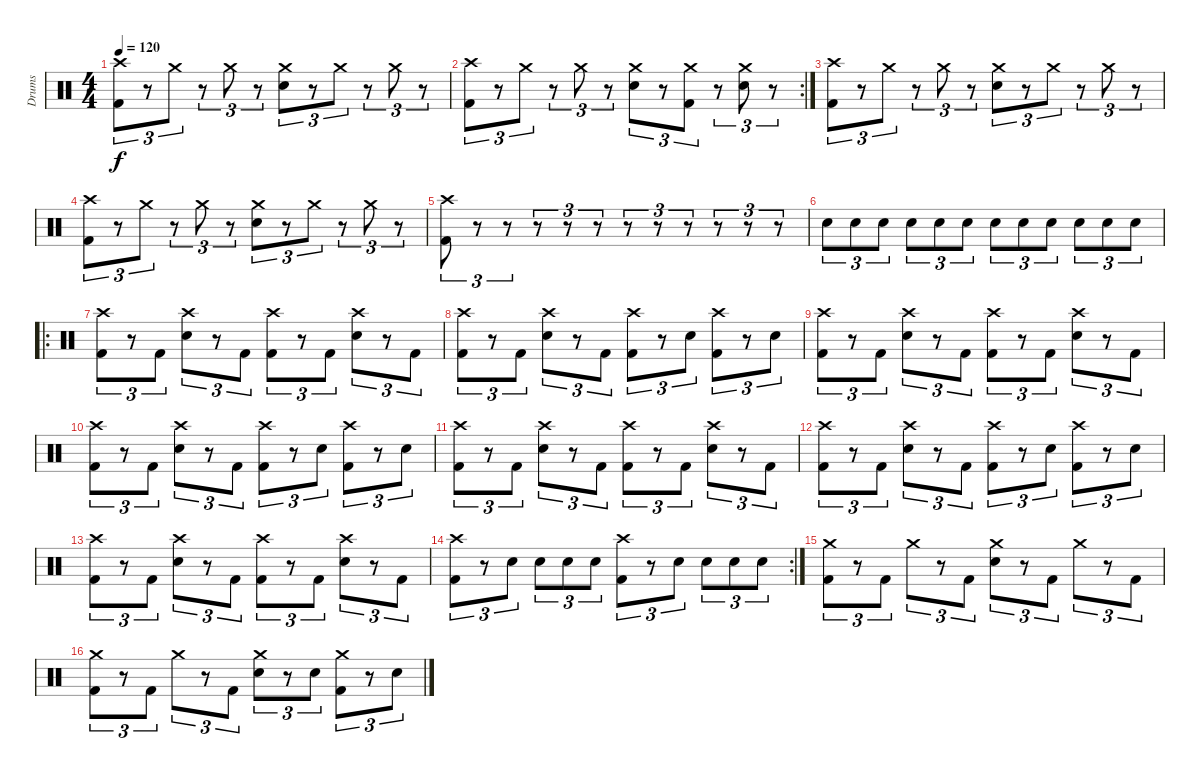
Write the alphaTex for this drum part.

\track ("Drums" "Drums") {instrument percussion}
\staff {score}
\articulation defaults
\ts (4 4)
\tempo 120
\clef neutral
\ks c
("Kick (hit) 2" "Crash high (hit)").8{tu (3 2) dy f} r.8{tu (3 2)} "Crash medium (hit)".8{tu (3 2)} r.8{tu (3 2)} "Crash medium (hit)".8{tu (3 2)} r.8{tu (3 2)} ("Electric Snare (hit)" "Crash medium (hit)").8{tu (3 2)} r.8{tu (3 2)} "Crash medium (hit)".8{tu (3 2)} r.8{tu (3 2)} "Crash medium (hit)".8{tu (3 2)} r.8{tu (3 2)} |
\rc 2
("Kick (hit) 2" "Crash high (hit)").8{tu (3 2)} r.8{tu (3 2)} "Crash medium (hit)".8{tu (3 2)} r.8{tu (3 2)} "Crash medium (hit)".8{tu (3 2)} r.8{tu (3 2)} ("Electric Snare (hit)" "Crash medium (hit)").8{tu (3 2)} r.8{tu (3 2)} ("Kick (hit) 2" "Crash medium (hit)").8{tu (3 2)} r.8{tu (3 2)} ("Electric Snare (hit)" "Crash medium (hit)").8{tu (3 2)} r.8{tu (3 2)} |
("Kick (hit) 2" "Crash high (hit)").8{tu (3 2)} r.8{tu (3 2)} "Crash medium (hit)".8{tu (3 2)} r.8{tu (3 2)} "Crash medium (hit)".8{tu (3 2)} r.8{tu (3 2)} ("Electric Snare (hit)" "Crash medium (hit)").8{tu (3 2)} r.8{tu (3 2)} "Crash medium (hit)".8{tu (3 2)} r.8{tu (3 2)} "Crash medium (hit)".8{tu (3 2)} r.8{tu (3 2)} |
("Kick (hit) 2" "Crash high (hit)").8{tu (3 2)} r.8{tu (3 2)} "Crash medium (hit)".8{tu (3 2)} r.8{tu (3 2)} "Crash medium (hit)".8{tu (3 2)} r.8{tu (3 2)} ("Electric Snare (hit)" "Crash medium (hit)").8{tu (3 2)} r.8{tu (3 2)} "Crash medium (hit)".8{tu (3 2)} r.8{tu (3 2)} "Crash medium (hit)".8{tu (3 2)} r.8{tu (3 2)} |
("Kick (hit) 2" "Crash high (hit)").8{tu (3 2)} r.8{tu (3 2)} r.8{tu (3 2)} r.8{tu (3 2)} r.8{tu (3 2)} r.8{tu (3 2)} r.8{tu (3 2)} r.8{tu (3 2)} r.8{tu (3 2)} r.8{tu (3 2)} r.8{tu (3 2)} r.8{tu (3 2)} |
"Electric Snare (hit)".8{tu (3 2)} "Electric Snare (hit)".8{tu (3 2)} "Electric Snare (hit)".8{tu (3 2)} "Electric Snare (hit)".8{tu (3 2)} "Electric Snare (hit)".8{tu (3 2)} "Electric Snare (hit)".8{tu (3 2)} "Electric Snare (hit)".8{tu (3 2)} "Electric Snare (hit)".8{tu (3 2)} "Electric Snare (hit)".8{tu (3 2)} "Electric Snare (hit)".8{tu (3 2)} "Electric Snare (hit)".8{tu (3 2)} "Electric Snare (hit)".8{tu (3 2)} |
\ro
("Kick (hit) 2" "Crash high (hit)").8{tu (3 2)} r.8{tu (3 2)} "Kick (hit) 2".8{tu (3 2)} ("Electric Snare (hit)" "Crash high (hit)").8{tu (3 2)} r.8{tu (3 2)} "Kick (hit) 2".8{tu (3 2)} ("Kick (hit) 2" "Crash high (hit)").8{tu (3 2)} r.8{tu (3 2)} "Kick (hit) 2".8{tu (3 2)} ("Electric Snare (hit)" "Crash high (hit)").8{tu (3 2)} r.8{tu (3 2)} "Kick (hit) 2".8{tu (3 2)} |
("Kick (hit) 2" "Crash high (hit)").8{tu (3 2)} r.8{tu (3 2)} "Kick (hit) 2".8{tu (3 2)} ("Electric Snare (hit)" "Crash high (hit)").8{tu (3 2)} r.8{tu (3 2)} "Kick (hit) 2".8{tu (3 2)} ("Kick (hit) 2" "Crash high (hit)").8{tu (3 2)} r.8{tu (3 2)} "Electric Snare (hit)".8{tu (3 2)} ("Kick (hit) 2" "Crash high (hit)").8{tu (3 2)} r.8{tu (3 2)} "Electric Snare (hit)".8{tu (3 2)} |
("Kick (hit) 2" "Crash high (hit)").8{tu (3 2)} r.8{tu (3 2)} "Kick (hit) 2".8{tu (3 2)} ("Electric Snare (hit)" "Crash high (hit)").8{tu (3 2)} r.8{tu (3 2)} "Kick (hit) 2".8{tu (3 2)} ("Kick (hit) 2" "Crash high (hit)").8{tu (3 2)} r.8{tu (3 2)} "Kick (hit) 2".8{tu (3 2)} ("Electric Snare (hit)" "Crash high (hit)").8{tu (3 2)} r.8{tu (3 2)} "Kick (hit) 2".8{tu (3 2)} |
("Kick (hit) 2" "Crash high (hit)").8{tu (3 2)} r.8{tu (3 2)} "Kick (hit) 2".8{tu (3 2)} ("Electric Snare (hit)" "Crash high (hit)").8{tu (3 2)} r.8{tu (3 2)} "Kick (hit) 2".8{tu (3 2)} ("Kick (hit) 2" "Crash high (hit)").8{tu (3 2)} r.8{tu (3 2)} "Electric Snare (hit)".8{tu (3 2)} ("Kick (hit) 2" "Crash high (hit)").8{tu (3 2)} r.8{tu (3 2)} "Electric Snare (hit)".8{tu (3 2)} |
("Kick (hit) 2" "Crash high (hit)").8{tu (3 2)} r.8{tu (3 2)} "Kick (hit) 2".8{tu (3 2)} ("Electric Snare (hit)" "Crash high (hit)").8{tu (3 2)} r.8{tu (3 2)} "Kick (hit) 2".8{tu (3 2)} ("Kick (hit) 2" "Crash high (hit)").8{tu (3 2)} r.8{tu (3 2)} "Kick (hit) 2".8{tu (3 2)} ("Electric Snare (hit)" "Crash high (hit)").8{tu (3 2)} r.8{tu (3 2)} "Kick (hit) 2".8{tu (3 2)} |
("Kick (hit) 2" "Crash high (hit)").8{tu (3 2)} r.8{tu (3 2)} "Kick (hit) 2".8{tu (3 2)} ("Electric Snare (hit)" "Crash high (hit)").8{tu (3 2)} r.8{tu (3 2)} "Kick (hit) 2".8{tu (3 2)} ("Kick (hit) 2" "Crash high (hit)").8{tu (3 2)} r.8{tu (3 2)} "Electric Snare (hit)".8{tu (3 2)} ("Kick (hit) 2" "Crash high (hit)").8{tu (3 2)} r.8{tu (3 2)} "Electric Snare (hit)".8{tu (3 2)} |
("Kick (hit) 2" "Crash high (hit)").8{tu (3 2)} r.8{tu (3 2)} "Kick (hit) 2".8{tu (3 2)} ("Electric Snare (hit)" "Crash high (hit)").8{tu (3 2)} r.8{tu (3 2)} "Kick (hit) 2".8{tu (3 2)} ("Kick (hit) 2" "Crash high (hit)").8{tu (3 2)} r.8{tu (3 2)} "Kick (hit) 2".8{tu (3 2)} ("Electric Snare (hit)" "Crash high (hit)").8{tu (3 2)} r.8{tu (3 2)} "Kick (hit) 2".8{tu (3 2)} |
\rc 2
("Kick (hit) 2" "Crash high (hit)").8{tu (3 2)} r.8{tu (3 2)} "Electric Snare (hit)".8{tu (3 2)} "Electric Snare (hit)".8{tu (3 2)} "Electric Snare (hit)".8{tu (3 2)} "Electric Snare (hit)".8{tu (3 2)} ("Kick (hit) 2" "Crash high (hit)").8{tu (3 2)} r.8{tu (3 2)} "Electric Snare (hit)".8{tu (3 2)} "Electric Snare (hit)".8{tu (3 2)} "Electric Snare (hit)".8{tu (3 2)} "Electric Snare (hit)".8{tu (3 2)} |
("Crash medium (hit)" "Kick (hit) 2").8{tu (3 2)} r.8{tu (3 2)} "Kick (hit) 2".8{tu (3 2)} "Crash medium (hit)".8{tu (3 2)} r.8{tu (3 2)} "Kick (hit) 2".8{tu (3 2)} ("Crash medium (hit)" "Electric Snare (hit)").8{tu (3 2)} r.8{tu (3 2)} "Kick (hit) 2".8{tu (3 2)} "Crash medium (hit)".8{tu (3 2)} r.8{tu (3 2)} "Kick (hit) 2".8{tu (3 2)} |
("Crash medium (hit)" "Kick (hit) 2").8{tu (3 2)} r.8{tu (3 2)} "Kick (hit) 2".8{tu (3 2)} "Crash medium (hit)".8{tu (3 2)} r.8{tu (3 2)} "Kick (hit) 2".8{tu (3 2)} ("Crash medium (hit)" "Electric Snare (hit)").8{tu (3 2)} r.8{tu (3 2)} "Electric Snare (hit)".8{tu (3 2)} ("Crash medium (hit)" "Kick (hit) 2").8{tu (3 2)} r.8{tu (3 2)} "Electric Snare (hit)".8{tu (3 2)}
